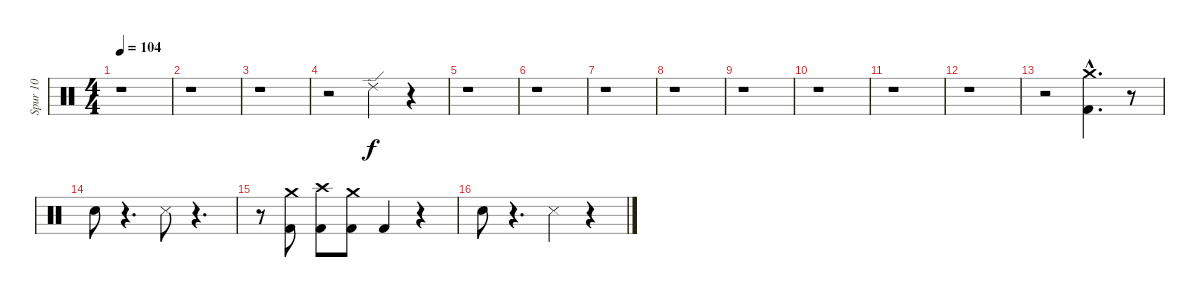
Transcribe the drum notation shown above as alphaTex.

\track ("Spur 10" "Spur 10") {instrument percussion}
\staff {score}
\articulation defaults
\ts (4 4)
\tempo 104
\clef neutral
\ks c
r.1{dy f} |
r.1 |
r.1 |
r.2 "Ride (edge) 2".4 r.4 |
r.1 |
r.1 |
r.1 |
r.1 |
r.1 |
r.1 |
r.1 |
r.1 |
r.2 ("Kick (hit) 2"{hac} "Crash medium (hit)").4{d} r.8 |
"Snare (hit) 2".8 r.4{d} "Snare (side stick) 3".8 r.4{d} |
r.8 ("Kick (hit) 2" "Crash medium (hit)").8 ("Kick (hit) 2" "Crash high (hit)").8 ("Crash medium (hit)" "Kick (hit) 2").8 "Kick (hit) 2".4 r.4 |
"Snare (hit) 2".8 r.4{d} "Snare (side stick) 3".4 r.4
